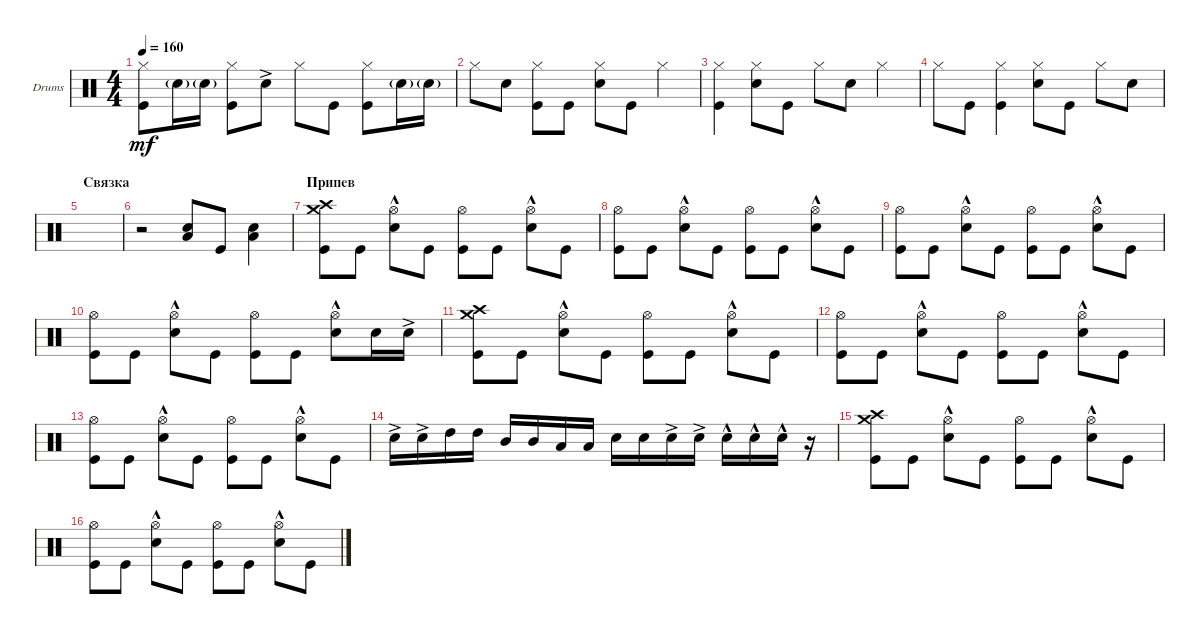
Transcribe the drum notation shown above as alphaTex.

\defaultSystemsLayout 4
\bracketExtendMode groupsimilarinstruments
\firstSystemTrackNameOrientation horizontal
\otherSystemsTrackNameOrientation horizontal
\track ("Drumkit" "Drums") {instrument percussion}
\staff {score}
\articulation defaults
\ts (4 4)
\tempo 160
\clef neutral
\ks c
("Kick (hit)" "Hi-Hat (closed)").8{dy mf} "Snare (hit) 2"{g}.16 "Snare (hit) 2"{g}.16 ("Hi-Hat (closed)" "Kick (hit)").8 "Snare (hit) 2"{ac}.8 "Hi-Hat (closed)".8 "Kick (hit)".8 ("Kick (hit)" "Hi-Hat (closed)").8 "Snare (hit) 2"{g}.16 "Snare (hit) 2"{g}.16 |
"Hi-Hat (closed)".8 "Snare (hit) 2".8 ("Kick (hit)" "Hi-Hat (closed)").8 "Kick (hit)".8 ("Snare (hit) 2" "Hi-Hat (closed)").8 "Kick (hit)".8 "Hi-Hat (closed)".4 |
("Kick (hit)" "Hi-Hat (closed)").4 ("Hi-Hat (closed)" "Snare (hit) 2").8 "Kick (hit)".8 "Hi-Hat (closed)".8 "Snare (hit) 2".8 "Hi-Hat (closed)".4 |
"Hi-Hat (closed)".8 "Kick (hit)".8 ("Kick (hit)" "Hi-Hat (closed)").4 ("Snare (hit) 2" "Hi-Hat (closed)").8 "Kick (hit)".8 "Hi-Hat (closed)".8 "Snare (hit) 2".8 |
\section ("" "Связка")
|
r.2 ("Low Tom (hit)" "Snare (hit) 2").8 "Kick (hit)".8 ("Low Tom (hit)" "Snare (hit) 2").4 |
\section ("" "Припев")
("Kick (hit)" "Crash high (hit)" "Crash medium (hit)").8 "Kick (hit)".8 ("Snare (hit) 2"{hac} "Hi-Hat (open)").8 "Kick (hit)".8 ("Kick (hit)" "Hi-Hat (open)").8 "Kick (hit)".8 ("Snare (hit) 2"{hac} "Hi-Hat (open)").8 "Kick (hit)".8 |
("Kick (hit)" "Hi-Hat (open)").8 "Kick (hit)".8 ("Snare (hit) 2"{hac} "Hi-Hat (open)").8 "Kick (hit)".8 ("Kick (hit)" "Hi-Hat (open)").8 "Kick (hit)".8 ("Snare (hit) 2"{hac} "Hi-Hat (open)").8 "Kick (hit)".8 |
("Kick (hit)" "Hi-Hat (open)").8 "Kick (hit)".8 ("Snare (hit) 2"{hac} "Hi-Hat (open)").8 "Kick (hit)".8 ("Kick (hit)" "Hi-Hat (open)").8 "Kick (hit)".8 ("Snare (hit) 2"{hac} "Hi-Hat (open)").8 "Kick (hit)".8 |
("Kick (hit)" "Hi-Hat (open)").8 "Kick (hit)".8 ("Snare (hit) 2"{hac} "Hi-Hat (open)").8 "Kick (hit)".8 ("Kick (hit)" "Hi-Hat (open)").8 "Kick (hit)".8 ("Snare (hit) 2"{hac} "Hi-Hat (open)").8 "Snare (hit) 2".16 "Snare (hit) 2"{ac}.16 |
("Kick (hit)" "Crash high (hit)" "Crash medium (hit)").8 "Kick (hit)".8 ("Snare (hit) 2"{hac} "Hi-Hat (open)").8 "Kick (hit)".8 ("Kick (hit)" "Hi-Hat (open)").8 "Kick (hit)".8 ("Snare (hit) 2"{hac} "Hi-Hat (open)").8 "Kick (hit)".8 |
("Kick (hit)" "Hi-Hat (open)").8 "Kick (hit)".8 ("Snare (hit) 2"{hac} "Hi-Hat (open)").8 "Kick (hit)".8 ("Kick (hit)" "Hi-Hat (open)").8 "Kick (hit)".8 ("Snare (hit) 2"{hac} "Hi-Hat (open)").8 "Kick (hit)".8 |
("Kick (hit)" "Hi-Hat (open)").8 "Kick (hit)".8 ("Snare (hit) 2"{hac} "Hi-Hat (open)").8 "Kick (hit)".8 ("Kick (hit)" "Hi-Hat (open)").8 "Kick (hit)".8 ("Snare (hit) 2"{hac} "Hi-Hat (open)").8 "Kick (hit)".8 |
"Snare (hit) 2"{ac}.16 "Snare (hit) 2"{ac}.16 "High Tom (hit)".16 "High Tom (hit)".16 "Mid Tom (hit)".16 "Mid Tom (hit)".16 "Low Tom (hit)".16 "Low Tom (hit)".16 "Snare (hit) 2".16 "Snare (hit) 2".16 "Snare (hit) 2"{ac}.16 "Snare (hit) 2"{ac}.16 "Snare (hit) 2"{hac}.16 "Snare (hit) 2"{hac}.16 "Snare (hit) 2"{hac}.16 r.16 |
("Kick (hit)" "Crash high (hit)" "Crash medium (hit)").8 "Kick (hit)".8 ("Snare (hit) 2"{hac} "Hi-Hat (open)").8 "Kick (hit)".8 ("Kick (hit)" "Hi-Hat (open)").8 "Kick (hit)".8 ("Snare (hit) 2"{hac} "Hi-Hat (open)").8 "Kick (hit)".8 |
("Kick (hit)" "Hi-Hat (open)").8 "Kick (hit)".8 ("Snare (hit) 2"{hac} "Hi-Hat (open)").8 "Kick (hit)".8 ("Kick (hit)" "Hi-Hat (open)").8 "Kick (hit)".8 ("Snare (hit) 2"{hac} "Hi-Hat (open)").8 "Kick (hit)".8
